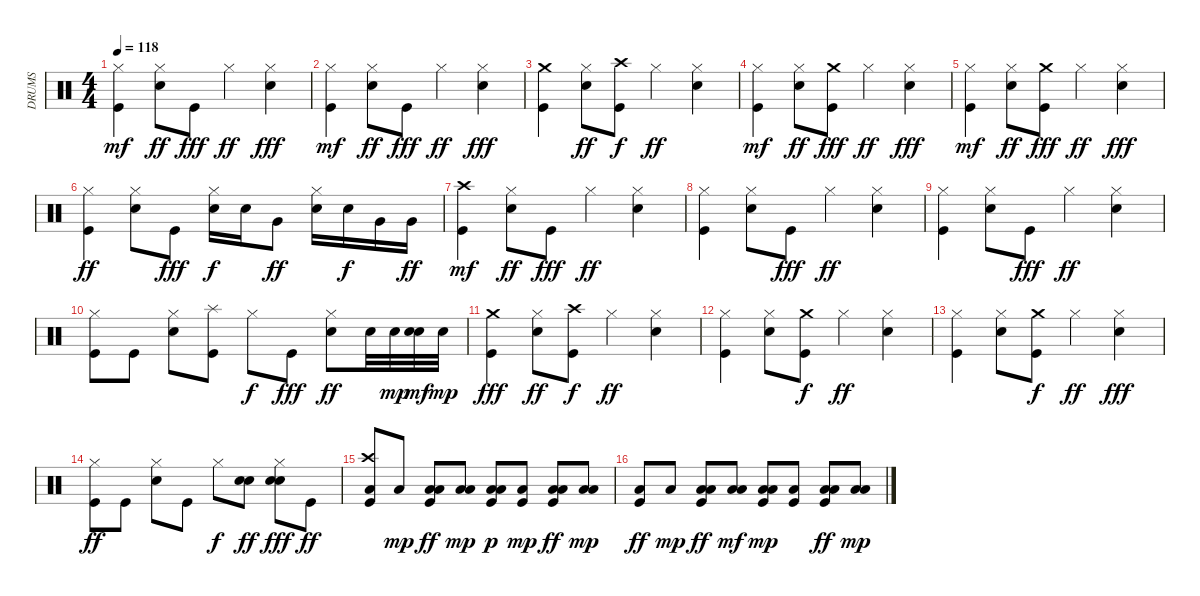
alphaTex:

\track ("DRUMS" "DRUMS") {instrument percussion}
\staff {score}
\articulation defaults
\ts (4 4)
\tempo 118
\clef neutral
\ks c
("Kick (hit)" "Hi-Hat (closed)").4{dy mf} ("Electric Snare (hit)" "Hi-Hat (closed)").8{dy ff} "Kick (hit)".8{dy fff} "Hi-Hat (closed)".4{dy ff} ("Electric Snare (hit)" "Hi-Hat (closed)").4{dy fff} |
("Kick (hit)" "Hi-Hat (closed)").4{dy mf} ("Electric Snare (hit)" "Hi-Hat (closed)").8{dy ff} "Kick (hit)".8{dy fff} "Hi-Hat (closed)".4{dy ff} ("Electric Snare (hit)" "Hi-Hat (closed)").4{dy fff} |
("Kick (hit)" "Crash medium (hit)").4 ("Electric Snare (hit)" "Hi-Hat (closed)").8{dy ff} ("Kick (hit)" "Crash high (hit)").8{dy f} "Hi-Hat (closed)".4{dy ff} ("Electric Snare (hit)" "Hi-Hat (closed)").4 |
("Kick (hit)" "Hi-Hat (closed)").4{dy mf} ("Electric Snare (hit)" "Hi-Hat (closed)").8{dy ff} ("Kick (hit)" "Crash medium (hit)").8{dy fff} "Hi-Hat (closed)".4{dy ff} ("Electric Snare (hit)" "Hi-Hat (closed)").4{dy fff} |
("Kick (hit)" "Hi-Hat (closed)").4{dy mf} ("Electric Snare (hit)" "Hi-Hat (closed)").8{dy ff} ("Kick (hit)" "Crash medium (hit)").8{dy fff} "Hi-Hat (closed)".4{dy ff} ("Electric Snare (hit)" "Hi-Hat (closed)").4{dy fff} |
("Kick (hit)" "Hi-Hat (closed)").4{dy ff} ("Electric Snare (hit)" "Hi-Hat (closed)").8 "Kick (hit)".8{dy fff} ("Electric Snare (hit)" "Hi-Hat (closed)").16{dy f} "Electric Snare (hit)".16 "Very Low Tom (hit)".8{dy ff} ("Electric Snare (hit)" "Hi-Hat (closed)").16 "Electric Snare (hit)".16{dy f} "Very Low Tom (hit)".16 "Very Low Tom (hit)".16{dy ff} |
("Kick (hit)" "Crash high (hit)").4{dy mf} ("Electric Snare (hit)" "Hi-Hat (closed)").8{dy ff} "Kick (hit)".8{dy fff} "Hi-Hat (closed)".4{dy ff} ("Electric Snare (hit)" "Hi-Hat (closed)").4 |
("Kick (hit)" "Hi-Hat (closed)").4 ("Electric Snare (hit)" "Hi-Hat (closed)").8 "Kick (hit)".8{dy fff} "Hi-Hat (closed)".4{dy ff} ("Electric Snare (hit)" "Hi-Hat (closed)").4 |
("Kick (hit)" "Hi-Hat (closed)").4 ("Electric Snare (hit)" "Hi-Hat (closed)").8 "Kick (hit)".8{dy fff} "Hi-Hat (closed)".4{dy ff} ("Electric Snare (hit)" "Hi-Hat (closed)").4 |
("Kick (hit)" "Hi-Hat (closed)").8 "Kick (hit)".8 ("Electric Snare (hit)" "Hi-Hat (closed)").8 ("Kick (hit)" "Splash (hit)").8 "Hi-Hat (closed)".8{dy f} "Kick (hit)".8{dy fff} ("Electric Snare (hit)" "Hi-Hat (closed)").8{dy ff} "Electric Snare (hit)".32 "Electric Snare (hit)".32{dy mp} ("Electric Snare (hit)" "Electric Snare (hit)").32{dy mf} "Electric Snare (hit)".32{dy mp} |
("Kick (hit)" "Crash medium (hit)").4{dy fff} ("Electric Snare (hit)" "Hi-Hat (closed)").8{dy ff} ("Kick (hit)" "Crash high (hit)").8{dy f} "Hi-Hat (closed)".4{dy ff} ("Electric Snare (hit)" "Hi-Hat (closed)").4 |
("Kick (hit)" "Hi-Hat (closed)").4 ("Electric Snare (hit)" "Hi-Hat (closed)").8 ("Kick (hit)" "Crash medium (hit)").8{dy f} "Hi-Hat (closed)".4{dy ff} ("Electric Snare (hit)" "Hi-Hat (closed)").4 |
("Kick (hit)" "Hi-Hat (closed)").4 ("Electric Snare (hit)" "Hi-Hat (closed)").8 ("Kick (hit)" "Crash medium (hit)").8{dy f} "Hi-Hat (closed)".4{dy ff} ("Electric Snare (hit)" "Hi-Hat (closed)").4{dy fff} |
("Kick (hit)" "Hi-Hat (closed)").8{dy ff} "Kick (hit)".8 ("Electric Snare (hit)" "Hi-Hat (closed)").8 "Kick (hit)".8 "Hi-Hat (closed)".8{dy f} ("Electric Snare (hit)" "Electric Snare (hit)").8{dy ff} ("Electric Snare (hit)" "Hi-Hat (closed)" "Electric Snare (hit)").8{dy fff} "Kick (hit)".8{dy ff} |
("Kick (hit)" "Low Tom (hit)" "Crash high (hit)").8 "Low Floor Tom (hit)".8{dy mp} ("Kick (hit)" "Low Floor Tom (hit)" "Low Tom (hit)").8{dy ff} ("Low Floor Tom (hit)" "Low Tom (hit)").8{dy mp} ("Kick (hit)" "Low Floor Tom (hit)" "Low Tom (hit)").8{dy p} ("Kick (hit)" "Low Floor Tom (hit)").8{dy mp} ("Kick (hit)" "Low Floor Tom (hit)" "Low Tom (hit)").8{dy ff} ("Low Floor Tom (hit)" "Low Tom (hit)").8{dy mp} |
("Kick (hit)" "Low Tom (hit)").8{dy ff} "Low Floor Tom (hit)".8{dy mp} ("Kick (hit)" "Low Floor Tom (hit)" "Low Tom (hit)").8{dy ff} ("Low Floor Tom (hit)" "Low Tom (hit)").8{dy mf} ("Kick (hit)" "Low Floor Tom (hit)" "Low Tom (hit)").8{dy mp} ("Kick (hit)" "Low Floor Tom (hit)").8 ("Kick (hit)" "Low Floor Tom (hit)" "Low Tom (hit)").8{dy ff} ("Low Floor Tom (hit)" "Low Tom (hit)").8{dy mp}
